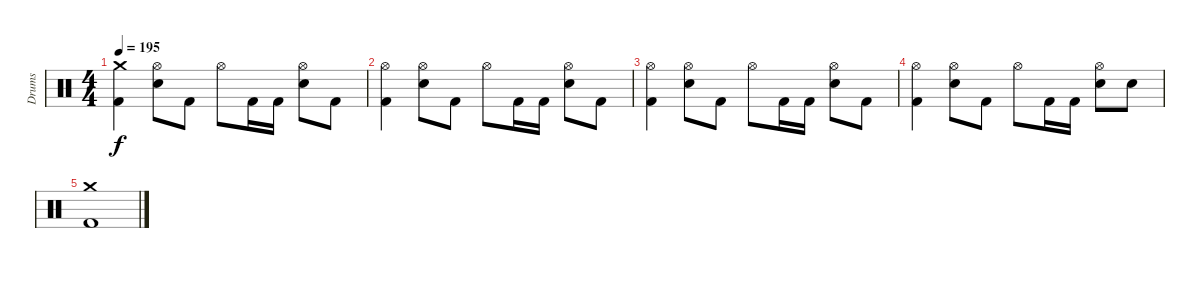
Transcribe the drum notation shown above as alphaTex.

\track ("Drums" "Drums") {instrument percussion}
\staff {score}
\articulation defaults
\ts (4 4)
\tempo 195
\clef neutral
\ks c
("Crash medium (hit)" "Kick (hit) 2").4{dy f} ("Hi-Hat (open)" "Electric Snare (hit)").8 "Kick (hit) 2".8 "Hi-Hat (open)".8 "Kick (hit) 2".16 "Kick (hit) 2".16 ("Hi-Hat (open)" "Electric Snare (hit)").8 "Kick (hit) 2".8 |
("Hi-Hat (open)" "Kick (hit) 2").4 ("Hi-Hat (open)" "Electric Snare (hit)").8 "Kick (hit) 2".8 "Hi-Hat (open)".8 "Kick (hit) 2".16 "Kick (hit) 2".16 ("Hi-Hat (open)" "Electric Snare (hit)").8 "Kick (hit) 2".8 |
("Hi-Hat (open)" "Kick (hit) 2").4 ("Hi-Hat (open)" "Electric Snare (hit)").8 "Kick (hit) 2".8 "Hi-Hat (open)".8 "Kick (hit) 2".16 "Kick (hit) 2".16 ("Hi-Hat (open)" "Electric Snare (hit)").8 "Kick (hit) 2".8 |
("Hi-Hat (open)" "Kick (hit) 2").4 ("Hi-Hat (open)" "Electric Snare (hit)").8 "Kick (hit) 2".8 "Hi-Hat (open)".8 "Kick (hit) 2".16 "Kick (hit) 2".16 ("Hi-Hat (open)" "Electric Snare (hit)").8 "Electric Snare (hit)".8 |
("Crash medium (hit)" "Kick (hit) 2").1
